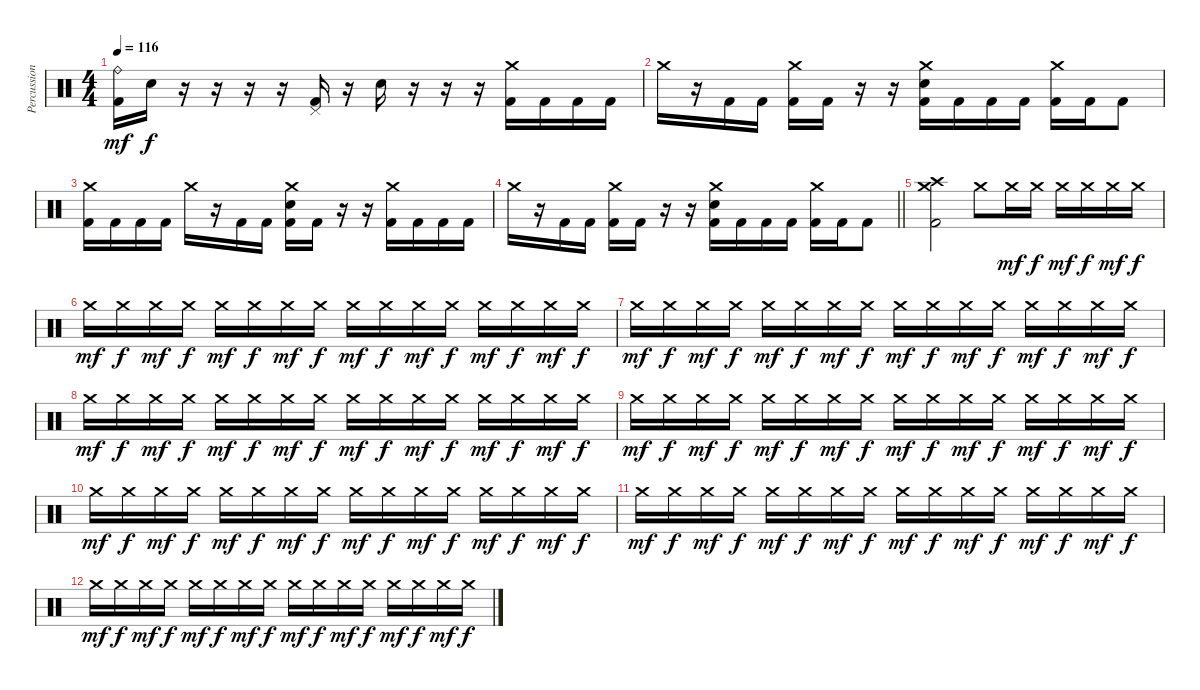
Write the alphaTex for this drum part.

\track ("Percussion (Moose)" "Percussion") {instrument percussion}
\staff {score}
\articulation defaults
\ts (4 4)
\tempo 116
\clef neutral
\ks c
("Kick (hit) 2" "Ride (bell)").16{dy mf} "Snare (hit)"{x}.16{dy f} r.16 r.16 r.16 r.16 ("Kick (hit) 2" "Pedal Hi-Hat (hit)").16 r.16 "Snare (hit) 2".16 r.16 r.16 r.16 ("Kick (hit) 2" "Crash medium (hit)").16 "Kick (hit) 2".16 "Kick (hit) 2".16 "Kick (hit) 2".16 |
"Crash medium (hit)".16 r.16 "Kick (hit) 2".16 "Kick (hit) 2".16 ("Kick (hit) 2" "Crash medium (hit)").16 "Kick (hit) 2".16 r.16 r.16 ("Kick (hit) 2" "Snare (hit) 2" "Crash medium (hit)").16 "Kick (hit) 2".16 "Kick (hit) 2".16 "Kick (hit) 2".16 ("Kick (hit) 2" "Crash medium (hit)").16 "Kick (hit) 2".16 "Kick (hit) 2".8 |
("Kick (hit) 2" "Crash medium (hit)").16 "Kick (hit) 2".16 "Kick (hit) 2".16 "Kick (hit) 2".16 "Crash medium (hit)".16 r.16 "Kick (hit) 2".16 "Kick (hit) 2".16 ("Kick (hit) 2" "Snare (hit) 2" "Crash medium (hit)").16 "Kick (hit) 2".16 r.16 r.16 ("Kick (hit) 2" "Crash medium (hit)").16 "Kick (hit) 2".16 "Kick (hit) 2".16 "Kick (hit) 2".16 |
\barLineRight lightlight "Crash medium (hit)".16
r.16 "Kick (hit) 2".16 "Kick (hit) 2".16 ("Kick (hit) 2" "Crash medium (hit)").16 "Kick (hit) 2".16 r.16 r.16 ("Kick (hit) 2" "Snare (hit) 2" "Crash medium (hit)").16 "Kick (hit) 2".16 "Kick (hit) 2".16 "Kick (hit) 2".16 ("Kick (hit) 2" "Crash medium (hit)").16 "Kick (hit) 2".16 "Kick (hit) 2".8 |
("Kick (hit) 2" "Crash high (hit)" "Crash medium (hit)").2 "Crash medium (hit)".8 "Crash medium (hit)".16{dy mf} "Crash medium (hit)".16{dy f} "Crash medium (hit)".16{dy mf} "Crash medium (hit)".16{dy f} "Crash medium (hit)".16{dy mf} "Crash medium (hit)".16{dy f} |
"Crash medium (hit)".16{dy mf} "Crash medium (hit)".16{dy f} "Crash medium (hit)".16{dy mf} "Crash medium (hit)".16{dy f} "Crash medium (hit)".16{dy mf} "Crash medium (hit)".16{dy f} "Crash medium (hit)".16{dy mf} "Crash medium (hit)".16{dy f} "Crash medium (hit)".16{dy mf} "Crash medium (hit)".16{dy f} "Crash medium (hit)".16{dy mf} "Crash medium (hit)".16{dy f} "Crash medium (hit)".16{dy mf} "Crash medium (hit)".16{dy f} "Crash medium (hit)".16{dy mf} "Crash medium (hit)".16{dy f} |
"Crash medium (hit)".16{dy mf volume 8} "Crash medium (hit)".16{dy f} "Crash medium (hit)".16{dy mf} "Crash medium (hit)".16{dy f} "Crash medium (hit)".16{dy mf} "Crash medium (hit)".16{dy f} "Crash medium (hit)".16{dy mf} "Crash medium (hit)".16{dy f} "Crash medium (hit)".16{dy mf} "Crash medium (hit)".16{dy f} "Crash medium (hit)".16{dy mf} "Crash medium (hit)".16{dy f} "Crash medium (hit)".16{dy mf} "Crash medium (hit)".16{dy f} "Crash medium (hit)".16{dy mf} "Crash medium (hit)".16{dy f} |
"Crash medium (hit)".16{dy mf} "Crash medium (hit)".16{dy f} "Crash medium (hit)".16{dy mf} "Crash medium (hit)".16{dy f} "Crash medium (hit)".16{dy mf} "Crash medium (hit)".16{dy f} "Crash medium (hit)".16{dy mf} "Crash medium (hit)".16{dy f} "Crash medium (hit)".16{dy mf} "Crash medium (hit)".16{dy f} "Crash medium (hit)".16{dy mf} "Crash medium (hit)".16{dy f} "Crash medium (hit)".16{dy mf} "Crash medium (hit)".16{dy f} "Crash medium (hit)".16{dy mf} "Crash medium (hit)".16{dy f} |
"Crash medium (hit)".16{dy mf volume 4} "Crash medium (hit)".16{dy f} "Crash medium (hit)".16{dy mf} "Crash medium (hit)".16{dy f} "Crash medium (hit)".16{dy mf} "Crash medium (hit)".16{dy f} "Crash medium (hit)".16{dy mf} "Crash medium (hit)".16{dy f} "Crash medium (hit)".16{dy mf} "Crash medium (hit)".16{dy f} "Crash medium (hit)".16{dy mf} "Crash medium (hit)".16{dy f} "Crash medium (hit)".16{dy mf} "Crash medium (hit)".16{dy f} "Crash medium (hit)".16{dy mf} "Crash medium (hit)".16{dy f} |
"Crash medium (hit)".16{dy mf} "Crash medium (hit)".16{dy f} "Crash medium (hit)".16{dy mf} "Crash medium (hit)".16{dy f} "Crash medium (hit)".16{dy mf} "Crash medium (hit)".16{dy f} "Crash medium (hit)".16{dy mf} "Crash medium (hit)".16{dy f} "Crash medium (hit)".16{dy mf} "Crash medium (hit)".16{dy f} "Crash medium (hit)".16{dy mf} "Crash medium (hit)".16{dy f} "Crash medium (hit)".16{dy mf} "Crash medium (hit)".16{dy f} "Crash medium (hit)".16{dy mf} "Crash medium (hit)".16{dy f} |
"Crash medium (hit)".16{dy mf volume 0} "Crash medium (hit)".16{dy f} "Crash medium (hit)".16{dy mf} "Crash medium (hit)".16{dy f} "Crash medium (hit)".16{dy mf} "Crash medium (hit)".16{dy f} "Crash medium (hit)".16{dy mf} "Crash medium (hit)".16{dy f} "Crash medium (hit)".16{dy mf} "Crash medium (hit)".16{dy f} "Crash medium (hit)".16{dy mf} "Crash medium (hit)".16{dy f} "Crash medium (hit)".16{dy mf} "Crash medium (hit)".16{dy f} "Crash medium (hit)".16{dy mf} "Crash medium (hit)".16{dy f} |
"Crash medium (hit)".16{dy mf} "Crash medium (hit)".16{dy f} "Crash medium (hit)".16{dy mf} "Crash medium (hit)".16{dy f} "Crash medium (hit)".16{dy mf} "Crash medium (hit)".16{dy f} "Crash medium (hit)".16{dy mf} "Crash medium (hit)".16{dy f} "Crash medium (hit)".16{dy mf} "Crash medium (hit)".16{dy f} "Crash medium (hit)".16{dy mf} "Crash medium (hit)".16{dy f} "Crash medium (hit)".16{dy mf} "Crash medium (hit)".16{dy f} "Crash medium (hit)".16{dy mf} "Crash medium (hit)".16{dy f}
